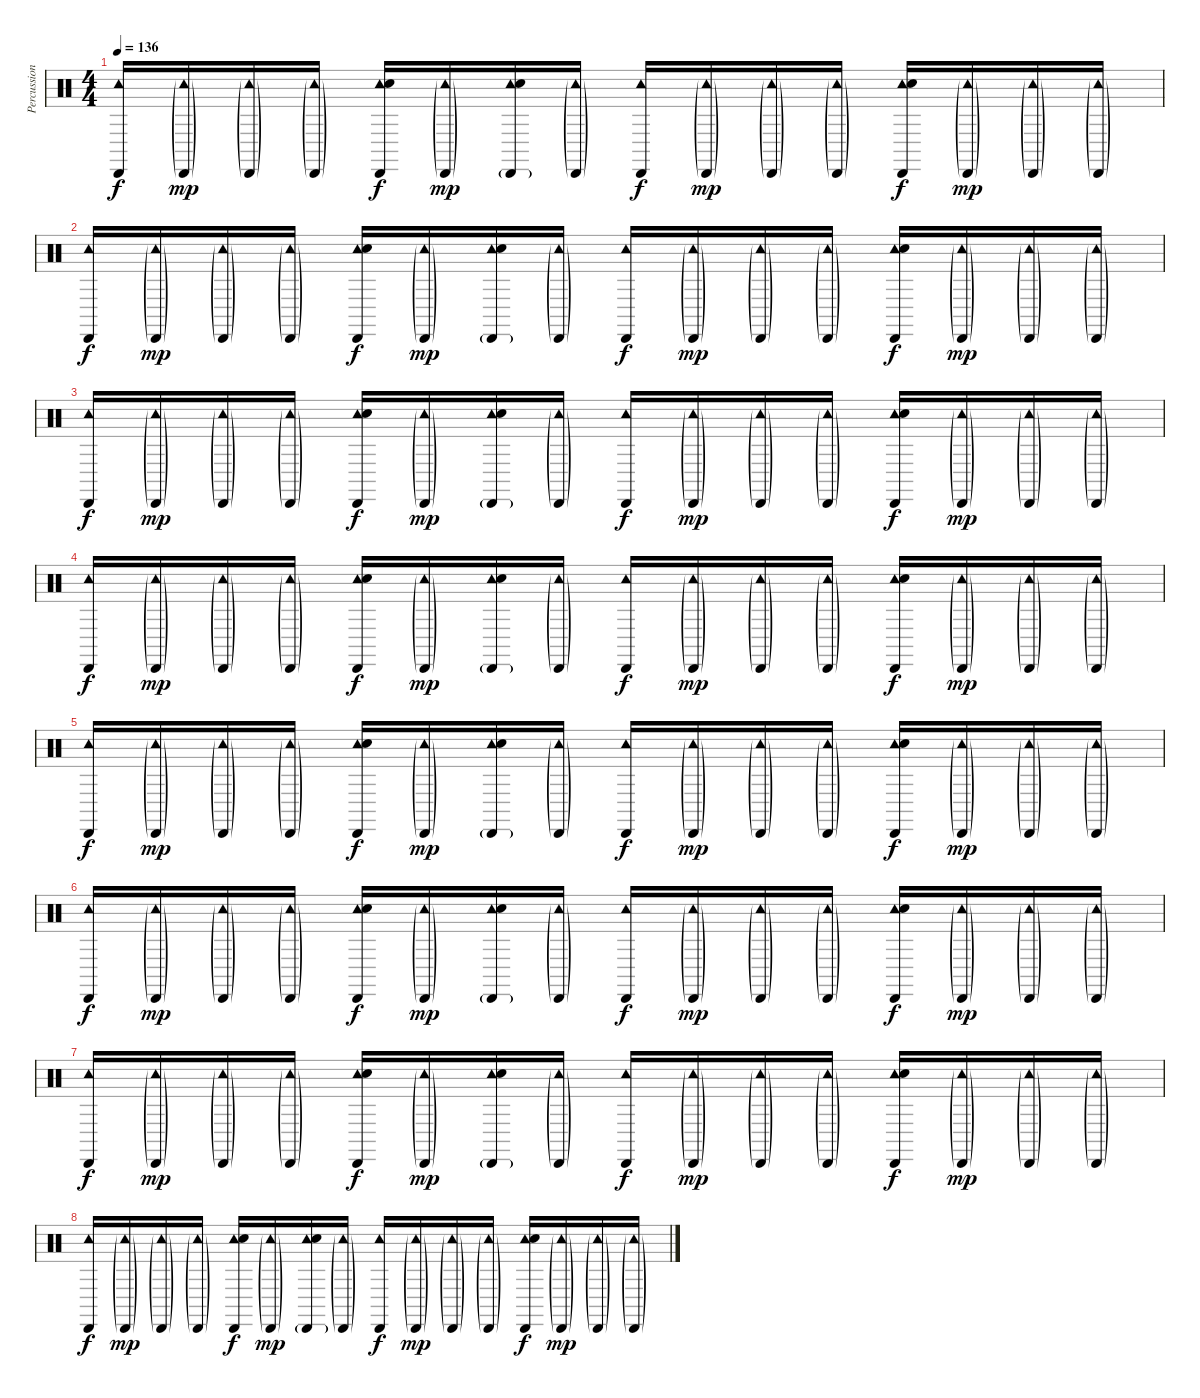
\track ("Percussion (2)" "Percussion") {instrument percussion}
\staff {score}
\articulation defaults
\ts (4 4)
\tempo 136
\clef neutral
\ks c
("Cabasa (hit)" "Tambourine (hit)").16{dy f} ("Cabasa (hit)"{g} "Tambourine (hit)"{g}).16{dy mp} ("Cabasa (hit)"{g} "Tambourine (hit)"{g}).16 ("Cabasa (hit)"{g} "Tambourine (hit)"{g}).16 ("Cabasa (hit)" "Tambourine (hit)" "Hand Clap (hit)").16{dy f} ("Cabasa (hit)"{g} "Tambourine (hit)"{g}).16{dy mp} ("Cabasa (hit)"{g} "Tambourine (hit)" "Hand Clap (hit)").16 ("Cabasa (hit)"{g} "Tambourine (hit)"{g}).16 ("Cabasa (hit)" "Tambourine (hit)").16{dy f} ("Cabasa (hit)"{g} "Tambourine (hit)"{g}).16{dy mp} ("Cabasa (hit)"{g} "Tambourine (hit)"{g}).16 ("Cabasa (hit)"{g} "Tambourine (hit)"{g}).16 ("Cabasa (hit)" "Tambourine (hit)" "Hand Clap (hit)").16{dy f} ("Cabasa (hit)"{g} "Tambourine (hit)"{g}).16{dy mp} ("Cabasa (hit)"{g} "Tambourine (hit)"{g}).16 ("Cabasa (hit)"{g} "Tambourine (hit)"{g}).16 |
("Cabasa (hit)" "Tambourine (hit)").16{dy f} ("Cabasa (hit)"{g} "Tambourine (hit)"{g}).16{dy mp} ("Cabasa (hit)"{g} "Tambourine (hit)"{g}).16 ("Cabasa (hit)"{g} "Tambourine (hit)"{g}).16 ("Cabasa (hit)" "Tambourine (hit)" "Hand Clap (hit)").16{dy f} ("Cabasa (hit)"{g} "Tambourine (hit)"{g}).16{dy mp} ("Cabasa (hit)"{g} "Tambourine (hit)" "Hand Clap (hit)").16 ("Cabasa (hit)"{g} "Tambourine (hit)"{g}).16 ("Cabasa (hit)" "Tambourine (hit)").16{dy f} ("Cabasa (hit)"{g} "Tambourine (hit)"{g}).16{dy mp} ("Cabasa (hit)"{g} "Tambourine (hit)"{g}).16 ("Cabasa (hit)"{g} "Tambourine (hit)"{g}).16 ("Cabasa (hit)" "Tambourine (hit)" "Hand Clap (hit)").16{dy f} ("Cabasa (hit)"{g} "Tambourine (hit)"{g}).16{dy mp} ("Cabasa (hit)"{g} "Tambourine (hit)"{g}).16 ("Cabasa (hit)"{g} "Tambourine (hit)"{g}).16 |
("Cabasa (hit)" "Tambourine (hit)").16{dy f} ("Cabasa (hit)"{g} "Tambourine (hit)"{g}).16{dy mp} ("Cabasa (hit)"{g} "Tambourine (hit)"{g}).16 ("Cabasa (hit)"{g} "Tambourine (hit)"{g}).16 ("Cabasa (hit)" "Tambourine (hit)" "Hand Clap (hit)").16{dy f} ("Cabasa (hit)"{g} "Tambourine (hit)"{g}).16{dy mp} ("Cabasa (hit)"{g} "Tambourine (hit)" "Hand Clap (hit)").16 ("Cabasa (hit)"{g} "Tambourine (hit)"{g}).16 ("Cabasa (hit)" "Tambourine (hit)").16{dy f} ("Cabasa (hit)"{g} "Tambourine (hit)"{g}).16{dy mp} ("Cabasa (hit)"{g} "Tambourine (hit)"{g}).16 ("Cabasa (hit)"{g} "Tambourine (hit)"{g}).16 ("Cabasa (hit)" "Tambourine (hit)" "Hand Clap (hit)").16{dy f} ("Cabasa (hit)"{g} "Tambourine (hit)"{g}).16{dy mp} ("Cabasa (hit)"{g} "Tambourine (hit)"{g}).16 ("Cabasa (hit)"{g} "Tambourine (hit)"{g}).16 |
("Cabasa (hit)" "Tambourine (hit)").16{dy f} ("Cabasa (hit)"{g} "Tambourine (hit)"{g}).16{dy mp} ("Cabasa (hit)"{g} "Tambourine (hit)"{g}).16 ("Cabasa (hit)"{g} "Tambourine (hit)"{g}).16 ("Cabasa (hit)" "Tambourine (hit)" "Hand Clap (hit)").16{dy f} ("Cabasa (hit)"{g} "Tambourine (hit)"{g}).16{dy mp} ("Cabasa (hit)"{g} "Tambourine (hit)" "Hand Clap (hit)").16 ("Cabasa (hit)"{g} "Tambourine (hit)"{g}).16 ("Cabasa (hit)" "Tambourine (hit)").16{dy f} ("Cabasa (hit)"{g} "Tambourine (hit)"{g}).16{dy mp} ("Cabasa (hit)"{g} "Tambourine (hit)"{g}).16 ("Cabasa (hit)"{g} "Tambourine (hit)"{g}).16 ("Cabasa (hit)" "Tambourine (hit)" "Hand Clap (hit)").16{dy f} ("Cabasa (hit)"{g} "Tambourine (hit)"{g}).16{dy mp} ("Cabasa (hit)"{g} "Tambourine (hit)"{g}).16 ("Cabasa (hit)"{g} "Tambourine (hit)"{g}).16 |
("Cabasa (hit)" "Tambourine (hit)").16{dy f} ("Cabasa (hit)"{g} "Tambourine (hit)"{g}).16{dy mp} ("Cabasa (hit)"{g} "Tambourine (hit)"{g}).16 ("Cabasa (hit)"{g} "Tambourine (hit)"{g}).16 ("Cabasa (hit)" "Tambourine (hit)" "Hand Clap (hit)").16{dy f} ("Cabasa (hit)"{g} "Tambourine (hit)"{g}).16{dy mp} ("Cabasa (hit)"{g} "Tambourine (hit)" "Hand Clap (hit)").16 ("Cabasa (hit)"{g} "Tambourine (hit)"{g}).16 ("Cabasa (hit)" "Tambourine (hit)").16{dy f} ("Cabasa (hit)"{g} "Tambourine (hit)"{g}).16{dy mp} ("Cabasa (hit)"{g} "Tambourine (hit)"{g}).16 ("Cabasa (hit)"{g} "Tambourine (hit)"{g}).16 ("Cabasa (hit)" "Tambourine (hit)" "Hand Clap (hit)").16{dy f} ("Cabasa (hit)"{g} "Tambourine (hit)"{g}).16{dy mp} ("Cabasa (hit)"{g} "Tambourine (hit)"{g}).16 ("Cabasa (hit)"{g} "Tambourine (hit)"{g}).16 |
("Cabasa (hit)" "Tambourine (hit)").16{dy f} ("Cabasa (hit)"{g} "Tambourine (hit)"{g}).16{dy mp} ("Cabasa (hit)"{g} "Tambourine (hit)"{g}).16 ("Cabasa (hit)"{g} "Tambourine (hit)"{g}).16 ("Cabasa (hit)" "Tambourine (hit)" "Hand Clap (hit)").16{dy f} ("Cabasa (hit)"{g} "Tambourine (hit)"{g}).16{dy mp} ("Cabasa (hit)"{g} "Tambourine (hit)" "Hand Clap (hit)").16 ("Cabasa (hit)"{g} "Tambourine (hit)"{g}).16 ("Cabasa (hit)" "Tambourine (hit)").16{dy f} ("Cabasa (hit)"{g} "Tambourine (hit)"{g}).16{dy mp} ("Cabasa (hit)"{g} "Tambourine (hit)"{g}).16 ("Cabasa (hit)"{g} "Tambourine (hit)"{g}).16 ("Cabasa (hit)" "Tambourine (hit)" "Hand Clap (hit)").16{dy f} ("Cabasa (hit)"{g} "Tambourine (hit)"{g}).16{dy mp} ("Cabasa (hit)"{g} "Tambourine (hit)"{g}).16 ("Cabasa (hit)"{g} "Tambourine (hit)"{g}).16 |
("Cabasa (hit)" "Tambourine (hit)").16{dy f} ("Cabasa (hit)"{g} "Tambourine (hit)"{g}).16{dy mp} ("Cabasa (hit)"{g} "Tambourine (hit)"{g}).16 ("Cabasa (hit)"{g} "Tambourine (hit)"{g}).16 ("Cabasa (hit)" "Tambourine (hit)" "Hand Clap (hit)").16{dy f} ("Cabasa (hit)"{g} "Tambourine (hit)"{g}).16{dy mp} ("Cabasa (hit)"{g} "Tambourine (hit)" "Hand Clap (hit)").16 ("Cabasa (hit)"{g} "Tambourine (hit)"{g}).16 ("Cabasa (hit)" "Tambourine (hit)").16{dy f} ("Cabasa (hit)"{g} "Tambourine (hit)"{g}).16{dy mp} ("Cabasa (hit)"{g} "Tambourine (hit)"{g}).16 ("Cabasa (hit)"{g} "Tambourine (hit)"{g}).16 ("Cabasa (hit)" "Tambourine (hit)" "Hand Clap (hit)").16{dy f} ("Cabasa (hit)"{g} "Tambourine (hit)"{g}).16{dy mp} ("Cabasa (hit)"{g} "Tambourine (hit)"{g}).16 ("Cabasa (hit)"{g} "Tambourine (hit)"{g}).16 |
("Cabasa (hit)" "Tambourine (hit)").16{dy f} ("Cabasa (hit)"{g} "Tambourine (hit)"{g}).16{dy mp} ("Cabasa (hit)"{g} "Tambourine (hit)"{g}).16 ("Cabasa (hit)"{g} "Tambourine (hit)"{g}).16 ("Cabasa (hit)" "Tambourine (hit)" "Hand Clap (hit)").16{dy f} ("Cabasa (hit)"{g} "Tambourine (hit)"{g}).16{dy mp} ("Cabasa (hit)"{g} "Tambourine (hit)" "Hand Clap (hit)").16 ("Cabasa (hit)"{g} "Tambourine (hit)"{g}).16 ("Cabasa (hit)" "Tambourine (hit)").16{dy f} ("Cabasa (hit)"{g} "Tambourine (hit)"{g}).16{dy mp} ("Cabasa (hit)"{g} "Tambourine (hit)"{g}).16 ("Cabasa (hit)"{g} "Tambourine (hit)"{g}).16 ("Cabasa (hit)" "Tambourine (hit)" "Hand Clap (hit)").16{dy f} ("Cabasa (hit)"{g} "Tambourine (hit)"{g}).16{dy mp} ("Cabasa (hit)"{g} "Tambourine (hit)"{g}).16 ("Cabasa (hit)"{g} "Tambourine (hit)"{g}).16
